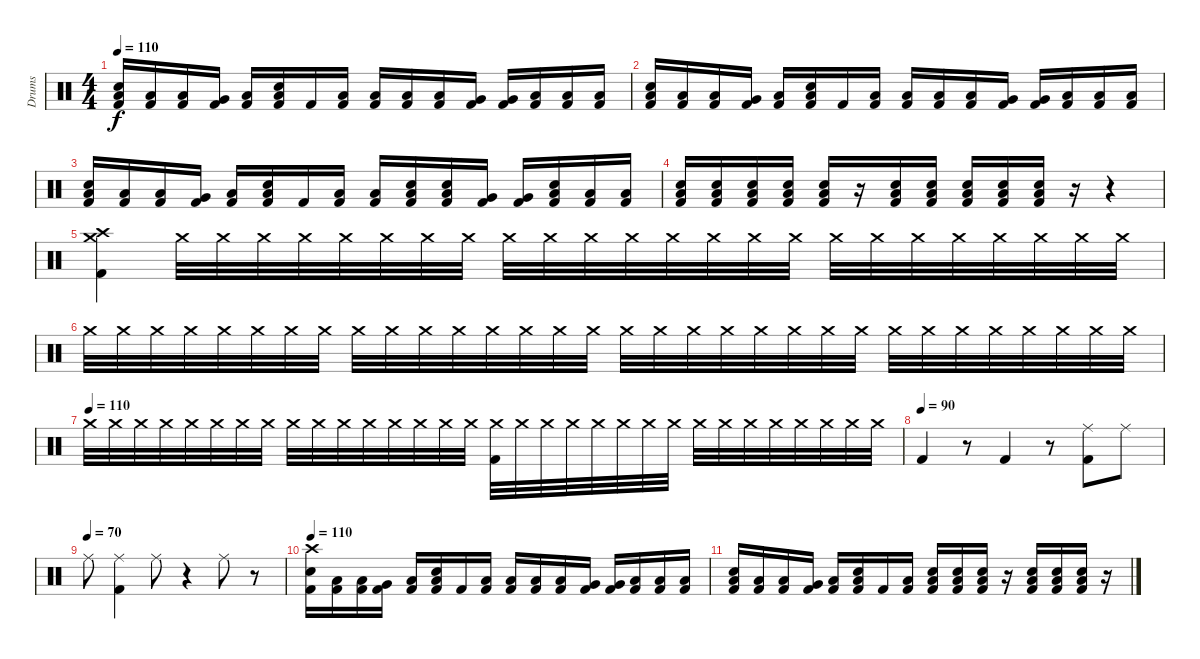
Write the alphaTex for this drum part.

\track ("Drums" "Drums") {instrument percussion}
\staff {score}
\articulation defaults
\ts (4 4)
\tempo 110
\clef neutral
\ks c
("Low Floor Tom (hit)" "Electric Snare (hit)" "Kick (hit) 2").16{dy f} ("Low Tom (hit)" "Kick (hit) 2").16 ("Low Tom (hit)" "Kick (hit) 2").16 ("Very Low Tom (hit)" "Kick (hit) 2").16 ("Low Floor Tom (hit)" "Kick (hit) 2").16 ("Low Floor Tom (hit)" "Electric Snare (hit)" "Kick (hit) 2").16 "Kick (hit) 2".16 ("Low Floor Tom (hit)" "Kick (hit) 2").16 ("Low Floor Tom (hit)" "Kick (hit) 2").16 ("Low Tom (hit)" "Kick (hit) 2").16 ("Low Tom (hit)" "Kick (hit) 2").16 ("Very Low Tom (hit)" "Kick (hit) 2").16 ("Very Low Tom (hit)" "Kick (hit) 2").16 ("Low Floor Tom (hit)" "Kick (hit) 2").16 ("Low Floor Tom (hit)" "Kick (hit) 2").16 ("Low Floor Tom (hit)" "Kick (hit) 2").16 |
("Low Floor Tom (hit)" "Electric Snare (hit)" "Kick (hit) 2").16 ("Low Tom (hit)" "Kick (hit) 2").16 ("Low Tom (hit)" "Kick (hit) 2").16 ("Very Low Tom (hit)" "Kick (hit) 2").16 ("Low Floor Tom (hit)" "Kick (hit) 2").16 ("Low Floor Tom (hit)" "Electric Snare (hit)" "Kick (hit) 2").16 "Kick (hit) 2".16 ("Low Floor Tom (hit)" "Kick (hit) 2").16 ("Low Floor Tom (hit)" "Kick (hit) 2").16 ("Low Tom (hit)" "Kick (hit) 2").16 ("Low Tom (hit)" "Kick (hit) 2").16 ("Very Low Tom (hit)" "Kick (hit) 2").16 ("Very Low Tom (hit)" "Kick (hit) 2").16 ("Low Floor Tom (hit)" "Kick (hit) 2").16 ("Low Floor Tom (hit)" "Kick (hit) 2").16 ("Low Floor Tom (hit)" "Kick (hit) 2").16 |
("Low Floor Tom (hit)" "Electric Snare (hit)" "Kick (hit) 2").16 ("Low Tom (hit)" "Kick (hit) 2").16 ("Low Tom (hit)" "Kick (hit) 2").16 ("Very Low Tom (hit)" "Kick (hit) 2").16 ("Low Floor Tom (hit)" "Kick (hit) 2").16 ("Low Floor Tom (hit)" "Electric Snare (hit)" "Kick (hit) 2").16 "Kick (hit) 2".16 ("Low Floor Tom (hit)" "Kick (hit) 2").16 ("Low Floor Tom (hit)" "Kick (hit) 2").16 ("Low Tom (hit)" "Electric Snare (hit)" "Kick (hit) 2").16 ("Low Tom (hit)" "Electric Snare (hit)" "Kick (hit) 2").16 ("Very Low Tom (hit)" "Kick (hit) 2").16 ("Very Low Tom (hit)" "Kick (hit) 2").16 ("Low Floor Tom (hit)" "Electric Snare (hit)" "Kick (hit) 2").16 ("Low Floor Tom (hit)" "Kick (hit) 2").16 ("Low Floor Tom (hit)" "Kick (hit) 2").16 |
("Low Floor Tom (hit)" "Electric Snare (hit)" "Kick (hit) 2").16 ("Low Floor Tom (hit)" "Electric Snare (hit)" "Kick (hit) 2").16 ("Low Floor Tom (hit)" "Electric Snare (hit)" "Kick (hit) 2").16 ("Low Floor Tom (hit)" "Electric Snare (hit)" "Kick (hit) 2").16 ("Low Floor Tom (hit)" "Electric Snare (hit)" "Kick (hit) 2").16 r.16 ("Low Floor Tom (hit)" "Electric Snare (hit)" "Kick (hit) 2").16 ("Low Floor Tom (hit)" "Electric Snare (hit)" "Kick (hit) 2").16 ("Low Floor Tom (hit)" "Electric Snare (hit)" "Kick (hit) 2").16 ("Low Floor Tom (hit)" "Electric Snare (hit)" "Kick (hit) 2").16 ("Low Floor Tom (hit)" "Electric Snare (hit)" "Kick (hit) 2").16 r.16 r.4 |
("Crash medium (hit)" "Crash high (hit)" "Kick (hit) 2").4 "Crash medium (hit)".32 "Crash medium (hit)".32 "Crash medium (hit)".32 "Crash medium (hit)".32 "Crash medium (hit)".32 "Crash medium (hit)".32 "Crash medium (hit)".32 "Crash medium (hit)".32 "Crash medium (hit)".32 "Crash medium (hit)".32 "Crash medium (hit)".32 "Crash medium (hit)".32 "Crash medium (hit)".32 "Crash medium (hit)".32 "Crash medium (hit)".32 "Crash medium (hit)".32 "Crash medium (hit)".32 "Crash medium (hit)".32 "Crash medium (hit)".32 "Crash medium (hit)".32 "Crash medium (hit)".32 "Crash medium (hit)".32 "Crash medium (hit)".32 "Crash medium (hit)".32 |
"Crash medium (hit)".32 "Crash medium (hit)".32 "Crash medium (hit)".32 "Crash medium (hit)".32 "Crash medium (hit)".32 "Crash medium (hit)".32 "Crash medium (hit)".32 "Crash medium (hit)".32 "Crash medium (hit)".32 "Crash medium (hit)".32 "Crash medium (hit)".32 "Crash medium (hit)".32 "Crash medium (hit)".32 "Crash medium (hit)".32 "Crash medium (hit)".32 "Crash medium (hit)".32 "Crash medium (hit)".32 "Crash medium (hit)".32 "Crash medium (hit)".32 "Crash medium (hit)".32 "Crash medium (hit)".32 "Crash medium (hit)".32 "Crash medium (hit)".32 "Crash medium (hit)".32 "Crash medium (hit)".32 "Crash medium (hit)".32 "Crash medium (hit)".32 "Crash medium (hit)".32 "Crash medium (hit)".32 "Crash medium (hit)".32 "Crash medium (hit)".32 "Crash medium (hit)".32 |
\tempo (110)
"Crash medium (hit)".32 "Crash medium (hit)".32 "Crash medium (hit)".32 "Crash medium (hit)".32 "Crash medium (hit)".32 "Crash medium (hit)".32 "Crash medium (hit)".32 "Crash medium (hit)".32 "Crash medium (hit)".32 "Crash medium (hit)".32 "Crash medium (hit)".32 "Crash medium (hit)".32 "Crash medium (hit)".32 "Crash medium (hit)".32 "Crash medium (hit)".32 "Crash medium (hit)".32 ("Crash medium (hit)" "Kick (hit) 2").32 "Crash medium (hit)".32 "Crash medium (hit)".32 "Crash medium (hit)".32 "Crash medium (hit)".32 "Crash medium (hit)".32 "Crash medium (hit)".32 "Crash medium (hit)".32 "Crash medium (hit)".32 "Crash medium (hit)".32 "Crash medium (hit)".32 "Crash medium (hit)".32 "Crash medium (hit)".32 "Crash medium (hit)".32 "Crash medium (hit)".32 "Crash medium (hit)".32 |
\tempo (90)
"Kick (hit) 2".4 r.8 "Kick (hit) 2".4 r.8 ("Ride (middle)" "Kick (hit) 2").8 "Ride (middle)".8 |
\tempo (70)
"Ride (middle)".8 ("Ride (middle)" "Kick (hit) 2").4 "Ride (middle)".8 r.4 "Ride (middle)".8 r.8 |
\tempo 110
("Crash high (hit)" "Electric Snare (hit)" "Kick (hit) 2").16 ("Low Tom (hit)" "Kick (hit) 2").16 ("Low Tom (hit)" "Kick (hit) 2").16 ("Very Low Tom (hit)" "Kick (hit) 2").16 ("Low Floor Tom (hit)" "Kick (hit) 2").16 ("Low Floor Tom (hit)" "Electric Snare (hit)" "Kick (hit) 2").16 "Kick (hit) 2".16 ("Low Floor Tom (hit)" "Kick (hit) 2").16 ("Low Floor Tom (hit)" "Kick (hit) 2").16 ("Low Tom (hit)" "Kick (hit) 2").16 ("Low Tom (hit)" "Kick (hit) 2").16 ("Very Low Tom (hit)" "Kick (hit) 2").16 ("Very Low Tom (hit)" "Kick (hit) 2").16 ("Low Floor Tom (hit)" "Kick (hit) 2").16 ("Low Floor Tom (hit)" "Kick (hit) 2").16 ("Low Floor Tom (hit)" "Kick (hit) 2").16 |
("Low Floor Tom (hit)" "Electric Snare (hit)" "Kick (hit) 2").16 ("Low Tom (hit)" "Kick (hit) 2").16 ("Low Tom (hit)" "Kick (hit) 2").16 ("Very Low Tom (hit)" "Kick (hit) 2").16 ("Low Floor Tom (hit)" "Kick (hit) 2").16 ("Low Floor Tom (hit)" "Electric Snare (hit)" "Kick (hit) 2").16 "Kick (hit) 2".16 ("Low Floor Tom (hit)" "Kick (hit) 2").16 ("Low Floor Tom (hit)" "Electric Snare (hit)" "Kick (hit) 2").16 ("Low Floor Tom (hit)" "Electric Snare (hit)" "Kick (hit) 2").16 ("Low Floor Tom (hit)" "Electric Snare (hit)" "Kick (hit) 2").16 r.16 ("Low Floor Tom (hit)" "Electric Snare (hit)" "Kick (hit) 2").16 ("Low Floor Tom (hit)" "Electric Snare (hit)" "Kick (hit) 2").16 ("Low Floor Tom (hit)" "Electric Snare (hit)" "Kick (hit) 2").16 r.16
